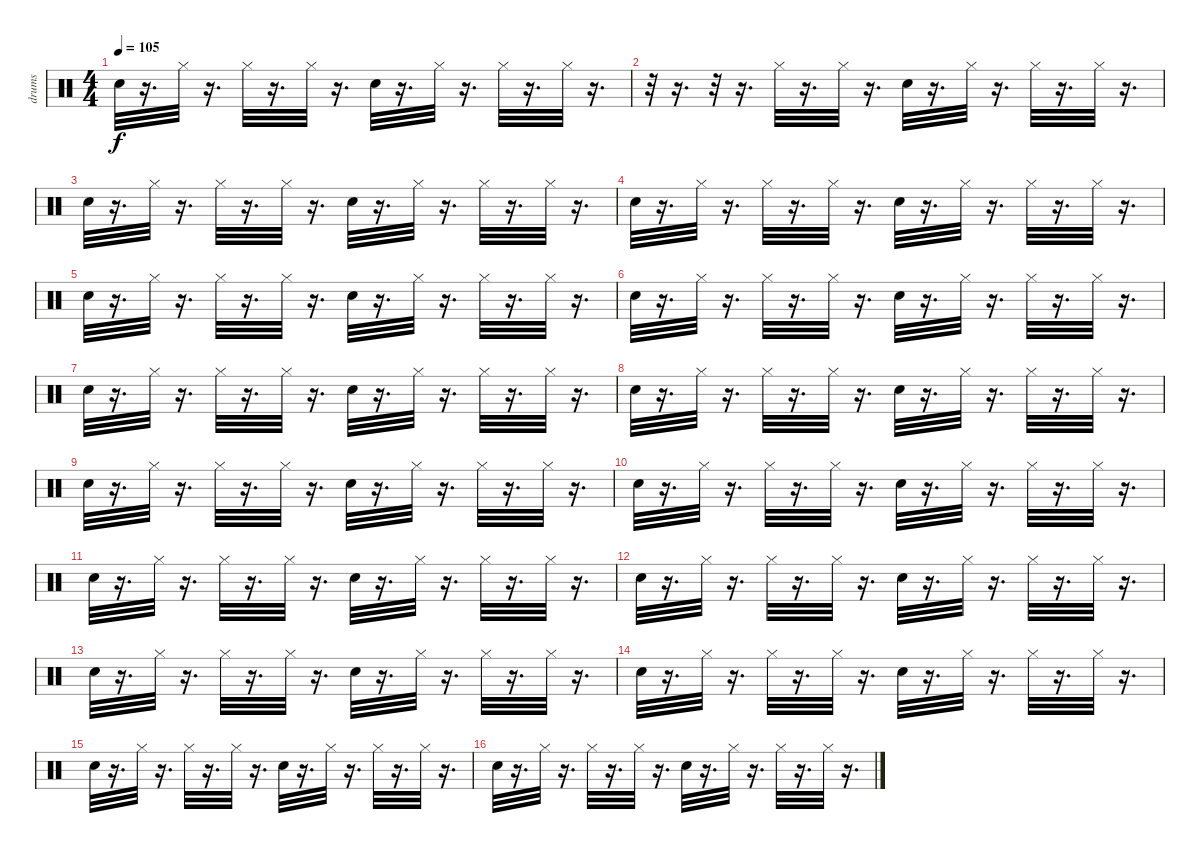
\track ("drums" "drums") {instrument percussion}
\staff {score}
\articulation defaults
\ts (4 4)
\tempo 105
\clef neutral
\ks c "Snare (hit) 2".32{dy f}
r.16{d} "Hi-Hat (closed)".32 r.16{d} "Hi-Hat (closed)".32 r.16{d} "Hi-Hat (closed)".32 r.16{d} "Snare (hit) 2".32 r.16{d} "Hi-Hat (closed)".32 r.16{d} "Hi-Hat (closed)".32 r.16{d} "Hi-Hat (closed)".32 r.16{d} |
r.32 r.16{d} r.32 r.16{d} "Hi-Hat (closed)".32 r.16{d} "Hi-Hat (closed)".32 r.16{d} "Snare (hit) 2".32 r.16{d} "Hi-Hat (closed)".32 r.16{d} "Hi-Hat (closed)".32 r.16{d} "Hi-Hat (closed)".32 r.16{d} |
"Snare (hit) 2".32 r.16{d} "Hi-Hat (closed)".32 r.16{d} "Hi-Hat (closed)".32 r.16{d} "Hi-Hat (closed)".32 r.16{d} "Snare (hit) 2".32 r.16{d} "Hi-Hat (closed)".32 r.16{d} "Hi-Hat (closed)".32 r.16{d} "Hi-Hat (closed)".32 r.16{d} |
"Snare (hit) 2".32 r.16{d} "Hi-Hat (closed)".32 r.16{d} "Hi-Hat (closed)".32 r.16{d} "Hi-Hat (closed)".32 r.16{d} "Snare (hit) 2".32 r.16{d} "Hi-Hat (closed)".32 r.16{d} "Hi-Hat (closed)".32 r.16{d} "Hi-Hat (closed)".32 r.16{d} |
"Snare (hit) 2".32 r.16{d} "Hi-Hat (closed)".32 r.16{d} "Hi-Hat (closed)".32 r.16{d} "Hi-Hat (closed)".32 r.16{d} "Snare (hit) 2".32 r.16{d} "Hi-Hat (closed)".32 r.16{d} "Hi-Hat (closed)".32 r.16{d} "Hi-Hat (closed)".32 r.16{d} |
"Snare (hit) 2".32 r.16{d} "Hi-Hat (closed)".32 r.16{d} "Hi-Hat (closed)".32 r.16{d} "Hi-Hat (closed)".32 r.16{d} "Snare (hit) 2".32 r.16{d} "Hi-Hat (closed)".32 r.16{d} "Hi-Hat (closed)".32 r.16{d} "Hi-Hat (closed)".32 r.16{d} |
"Snare (hit) 2".32 r.16{d} "Hi-Hat (closed)".32 r.16{d} "Hi-Hat (closed)".32 r.16{d} "Hi-Hat (closed)".32 r.16{d} "Snare (hit) 2".32 r.16{d} "Hi-Hat (closed)".32 r.16{d} "Hi-Hat (closed)".32 r.16{d} "Hi-Hat (closed)".32 r.16{d} |
"Snare (hit) 2".32 r.16{d} "Hi-Hat (closed)".32 r.16{d} "Hi-Hat (closed)".32 r.16{d} "Hi-Hat (closed)".32 r.16{d} "Snare (hit) 2".32 r.16{d} "Hi-Hat (closed)".32 r.16{d} "Hi-Hat (closed)".32 r.16{d} "Hi-Hat (closed)".32 r.16{d} |
"Snare (hit) 2".32 r.16{d} "Hi-Hat (closed)".32 r.16{d} "Hi-Hat (closed)".32 r.16{d} "Hi-Hat (closed)".32 r.16{d} "Snare (hit) 2".32 r.16{d} "Hi-Hat (closed)".32 r.16{d} "Hi-Hat (closed)".32 r.16{d} "Hi-Hat (closed)".32 r.16{d} |
"Snare (hit) 2".32 r.16{d} "Hi-Hat (closed)".32 r.16{d} "Hi-Hat (closed)".32 r.16{d} "Hi-Hat (closed)".32 r.16{d} "Snare (hit) 2".32 r.16{d} "Hi-Hat (closed)".32 r.16{d} "Hi-Hat (closed)".32 r.16{d} "Hi-Hat (closed)".32 r.16{d} |
"Snare (hit) 2".32 r.16{d} "Hi-Hat (closed)".32 r.16{d} "Hi-Hat (closed)".32 r.16{d} "Hi-Hat (closed)".32 r.16{d} "Snare (hit) 2".32 r.16{d} "Hi-Hat (closed)".32 r.16{d} "Hi-Hat (closed)".32 r.16{d} "Hi-Hat (closed)".32 r.16{d} |
"Snare (hit) 2".32 r.16{d} "Hi-Hat (closed)".32 r.16{d} "Hi-Hat (closed)".32 r.16{d} "Hi-Hat (closed)".32 r.16{d} "Snare (hit) 2".32 r.16{d} "Hi-Hat (closed)".32 r.16{d} "Hi-Hat (closed)".32 r.16{d} "Hi-Hat (closed)".32 r.16{d} |
"Snare (hit) 2".32 r.16{d} "Hi-Hat (closed)".32 r.16{d} "Hi-Hat (closed)".32 r.16{d} "Hi-Hat (closed)".32 r.16{d} "Snare (hit) 2".32 r.16{d} "Hi-Hat (closed)".32 r.16{d} "Hi-Hat (closed)".32 r.16{d} "Hi-Hat (closed)".32 r.16{d} |
"Snare (hit) 2".32 r.16{d} "Hi-Hat (closed)".32 r.16{d} "Hi-Hat (closed)".32 r.16{d} "Hi-Hat (closed)".32 r.16{d} "Snare (hit) 2".32 r.16{d} "Hi-Hat (closed)".32 r.16{d} "Hi-Hat (closed)".32 r.16{d} "Hi-Hat (closed)".32 r.16{d} |
"Snare (hit) 2".32 r.16{d} "Hi-Hat (closed)".32 r.16{d} "Hi-Hat (closed)".32 r.16{d} "Hi-Hat (closed)".32 r.16{d} "Snare (hit) 2".32 r.16{d} "Hi-Hat (closed)".32 r.16{d} "Hi-Hat (closed)".32 r.16{d} "Hi-Hat (closed)".32 r.16{d} |
"Snare (hit) 2".32 r.16{d} "Hi-Hat (closed)".32 r.16{d} "Hi-Hat (closed)".32 r.16{d} "Hi-Hat (closed)".32 r.16{d} "Snare (hit) 2".32 r.16{d} "Hi-Hat (closed)".32 r.16{d} "Hi-Hat (closed)".32 r.16{d} "Hi-Hat (closed)".32 r.16{d}
